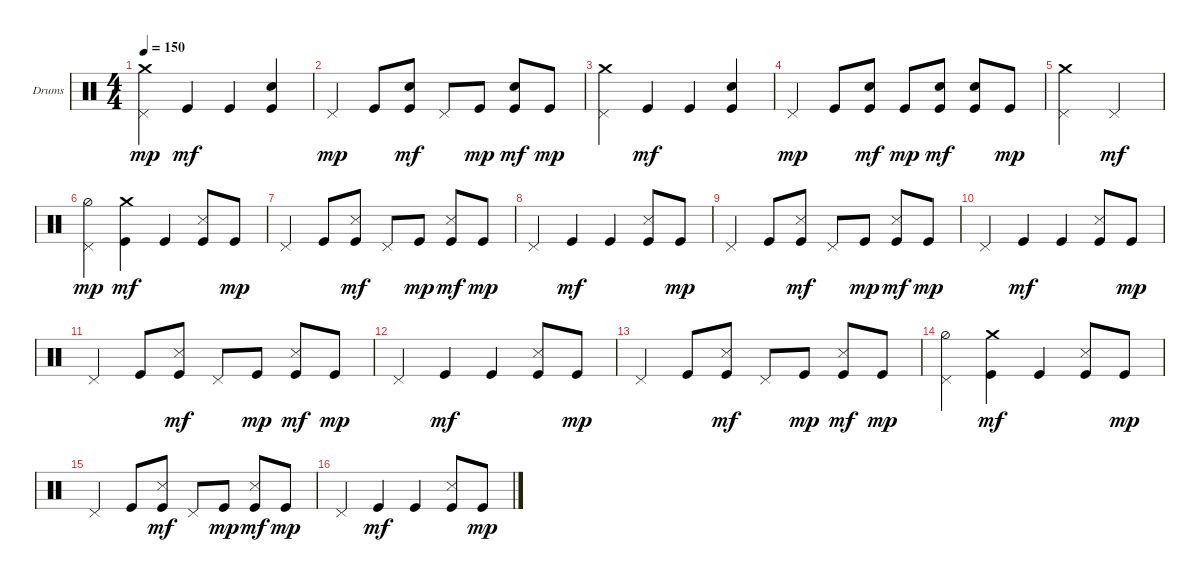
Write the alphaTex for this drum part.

\defaultSystemsLayout 4
\bracketExtendMode groupsimilarinstruments
\firstSystemTrackNameOrientation horizontal
\otherSystemsTrackNameOrientation horizontal
\track ("Е. Кулаков" "Drums") {instrument percussion}
\staff {score}
\articulation defaults
\ts (4 4)
\tempo 150
\clef neutral
\ks c
("Pedal Hi-Hat (hit)" "Crash medium (hit)").4{dy mp} "Kick (hit)".4{dy mf} "Kick (hit)".4 ("Snare (hit) 2" "Kick (hit)").4 |
"Pedal Hi-Hat (hit)".4{dy mp} "Kick (hit)".8 ("Kick (hit)" "Snare (hit) 2").8{dy mf} "Pedal Hi-Hat (hit)".8 "Kick (hit)".8{dy mp} ("Kick (hit)" "Snare (hit) 2").8{dy mf} "Kick (hit)".8{dy mp} |
("Pedal Hi-Hat (hit)" "Crash medium (hit)").4 "Kick (hit)".4{dy mf} "Kick (hit)".4 ("Snare (hit) 2" "Kick (hit)").4 |
"Pedal Hi-Hat (hit)".4{dy mp} "Kick (hit)".8 ("Kick (hit)" "Snare (hit) 2").8{dy mf} "Kick (hit)".8{dy mp} ("Kick (hit)" "Snare (hit) 2").8{dy mf} ("Kick (hit)" "Snare (hit) 2").8 "Kick (hit)".8{dy mp} |
("Pedal Hi-Hat (hit)" "Crash medium (hit)").2 "Pedal Hi-Hat (hit)".2{dy mf} |
("Pedal Hi-Hat (hit)" "Hi-Hat (half)").4{dy mp} ("Kick (hit)" "Crash medium (hit)").4{dy mf} "Kick (hit)".4 ("Kick (hit)" "Snare (side stick) 3").8 "Kick (hit)".8{dy mp} |
"Pedal Hi-Hat (hit)".4 "Kick (hit)".8 ("Kick (hit)" "Snare (side stick) 3").8{dy mf} "Pedal Hi-Hat (hit)".8 "Kick (hit)".8{dy mp} ("Kick (hit)" "Snare (side stick) 3").8{dy mf} "Kick (hit)".8{dy mp} |
"Pedal Hi-Hat (hit)".4 "Kick (hit)".4{dy mf} "Kick (hit)".4 ("Kick (hit)" "Snare (side stick) 3").8 "Kick (hit)".8{dy mp} |
"Pedal Hi-Hat (hit)".4 "Kick (hit)".8 ("Kick (hit)" "Snare (side stick) 3").8{dy mf} "Pedal Hi-Hat (hit)".8 "Kick (hit)".8{dy mp} ("Kick (hit)" "Snare (side stick) 3").8{dy mf} "Kick (hit)".8{dy mp} |
"Pedal Hi-Hat (hit)".4 "Kick (hit)".4{dy mf} "Kick (hit)".4 ("Kick (hit)" "Snare (side stick) 3").8 "Kick (hit)".8{dy mp} |
"Pedal Hi-Hat (hit)".4 "Kick (hit)".8 ("Kick (hit)" "Snare (side stick) 3").8{dy mf} "Pedal Hi-Hat (hit)".8 "Kick (hit)".8{dy mp} ("Kick (hit)" "Snare (side stick) 3").8{dy mf} "Kick (hit)".8{dy mp} |
"Pedal Hi-Hat (hit)".4 "Kick (hit)".4{dy mf} "Kick (hit)".4 ("Kick (hit)" "Snare (side stick) 3").8 "Kick (hit)".8{dy mp} |
"Pedal Hi-Hat (hit)".4 "Kick (hit)".8 ("Kick (hit)" "Snare (side stick) 3").8{dy mf} "Pedal Hi-Hat (hit)".8 "Kick (hit)".8{dy mp} ("Kick (hit)" "Snare (side stick) 3").8{dy mf} "Kick (hit)".8{dy mp} |
("Pedal Hi-Hat (hit)" "Hi-Hat (half)").4 ("Kick (hit)" "Crash medium (hit)").4{dy mf} "Kick (hit)".4 ("Kick (hit)" "Snare (side stick) 3").8 "Kick (hit)".8{dy mp} |
"Pedal Hi-Hat (hit)".4 "Kick (hit)".8 ("Kick (hit)" "Snare (side stick) 3").8{dy mf} "Pedal Hi-Hat (hit)".8 "Kick (hit)".8{dy mp} ("Kick (hit)" "Snare (side stick) 3").8{dy mf} "Kick (hit)".8{dy mp} |
"Pedal Hi-Hat (hit)".4 "Kick (hit)".4{dy mf} "Kick (hit)".4 ("Kick (hit)" "Snare (side stick) 3").8 "Kick (hit)".8{dy mp}
